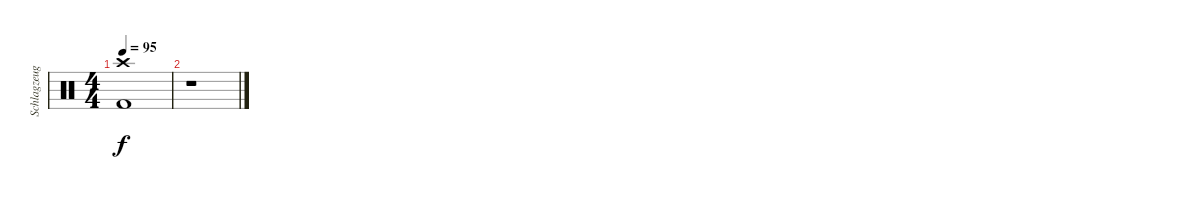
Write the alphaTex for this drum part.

\track ("Schlagzeug" "Schlagzeug") {instrument percussion}
\staff {score}
\articulation defaults
\ts (4 4)
\tempo 95
\clef neutral
\ks c
("Crash high (hit)" "Kick (hit) 2").1{dy f} |
r.1
